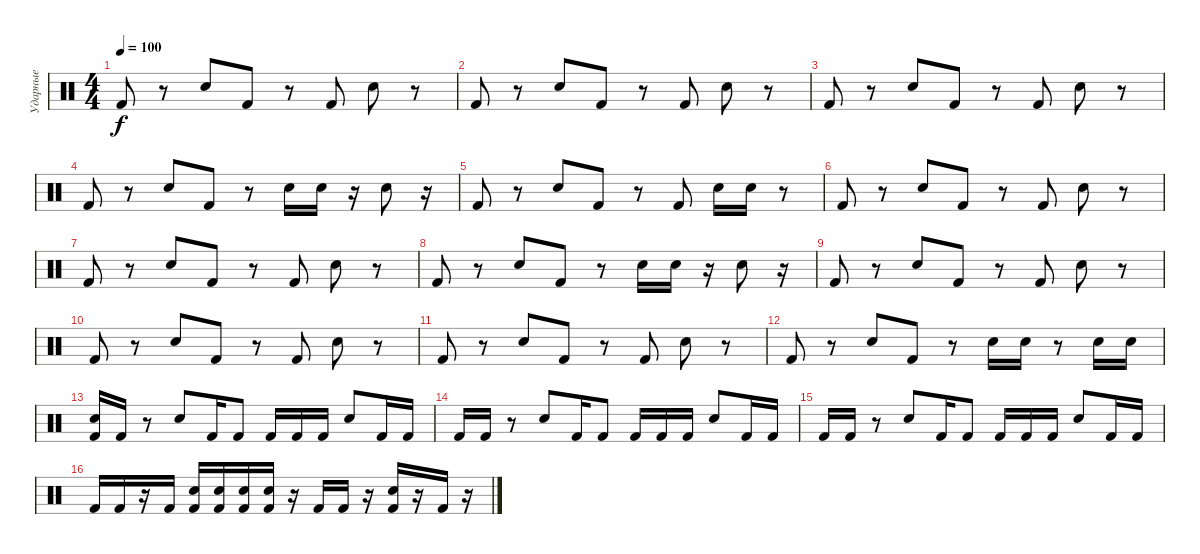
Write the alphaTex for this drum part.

\track ("Ударные" "Ударные") {instrument percussion}
\staff {score}
\articulation defaults
\ts (4 4)
\tempo 100
\clef neutral
\ks c "Kick (hit) 2".8{dy f}
r.8 "Snare (hit) 2".8 "Kick (hit) 2".8 r.8 "Kick (hit) 2".8 "Snare (hit) 2".8 r.8 |
"Kick (hit) 2".8 r.8 "Snare (hit) 2".8 "Kick (hit) 2".8 r.8 "Kick (hit) 2".8 "Snare (hit) 2".8 r.8 |
"Kick (hit) 2".8 r.8 "Snare (hit) 2".8 "Kick (hit) 2".8 r.8 "Kick (hit) 2".8 "Snare (hit) 2".8 r.8 |
"Kick (hit) 2".8 r.8 "Snare (hit) 2".8 "Kick (hit) 2".8 r.8 "Snare (hit) 2".16 "Snare (hit) 2".16 r.16 "Snare (hit) 2".8 r.16 |
"Kick (hit) 2".8 r.8 "Snare (hit) 2".8 "Kick (hit) 2".8 r.8 "Kick (hit) 2".8 "Snare (hit) 2".16 "Snare (hit) 2".16 r.8 |
"Kick (hit) 2".8 r.8 "Snare (hit) 2".8 "Kick (hit) 2".8 r.8 "Kick (hit) 2".8 "Snare (hit) 2".8 r.8 |
"Kick (hit) 2".8 r.8 "Snare (hit) 2".8 "Kick (hit) 2".8 r.8 "Kick (hit) 2".8 "Snare (hit) 2".8 r.8 |
"Kick (hit) 2".8 r.8 "Snare (hit) 2".8 "Kick (hit) 2".8 r.8 "Snare (hit) 2".16 "Snare (hit) 2".16 r.16 "Snare (hit) 2".8 r.16 |
"Kick (hit) 2".8 r.8 "Snare (hit) 2".8 "Kick (hit) 2".8 r.8 "Kick (hit) 2".8 "Snare (hit) 2".8 r.8 |
"Kick (hit) 2".8 r.8 "Snare (hit) 2".8 "Kick (hit) 2".8 r.8 "Kick (hit) 2".8 "Snare (hit) 2".8 r.8 |
"Kick (hit) 2".8 r.8 "Snare (hit) 2".8 "Kick (hit) 2".8 r.8 "Kick (hit) 2".8 "Snare (hit) 2".8 r.8 |
"Kick (hit) 2".8 r.8 "Snare (hit) 2".8 "Kick (hit) 2".8 r.8 "Snare (hit) 2".16 "Snare (hit) 2".16 r.8 "Snare (hit) 2".16 "Snare (hit) 2".16 |
("Snare (hit) 2" "Kick (hit) 2").16 "Kick (hit) 2".16 r.8 "Snare (hit) 2".8 "Kick (hit) 2".16 "Kick (hit) 2".8 "Kick (hit) 2".16 "Kick (hit) 2".16 "Kick (hit) 2".16 "Snare (hit) 2".8 "Kick (hit) 2".16 "Kick (hit) 2".16 |
"Kick (hit) 2".16 "Kick (hit) 2".16 r.8 "Snare (hit) 2".8 "Kick (hit) 2".16 "Kick (hit) 2".8 "Kick (hit) 2".16 "Kick (hit) 2".16 "Kick (hit) 2".16 "Snare (hit) 2".8 "Kick (hit) 2".16 "Kick (hit) 2".16 |
"Kick (hit) 2".16 "Kick (hit) 2".16 r.8 "Snare (hit) 2".8 "Kick (hit) 2".16 "Kick (hit) 2".8 "Kick (hit) 2".16 "Kick (hit) 2".16 "Kick (hit) 2".16 "Snare (hit) 2".8 "Kick (hit) 2".16 "Kick (hit) 2".16 |
"Kick (hit) 2".16 "Kick (hit) 2".16 r.16 "Kick (hit) 2".16 ("Snare (hit) 2" "Kick (hit) 2").16 ("Snare (hit) 2" "Kick (hit) 2").16 ("Snare (hit) 2" "Kick (hit) 2").16 ("Snare (hit) 2" "Kick (hit) 2").16 r.16 "Kick (hit) 2".16 "Kick (hit) 2".16 r.16 ("Snare (hit) 2" "Kick (hit) 2").16 r.16 "Kick (hit) 2".16 r.16
